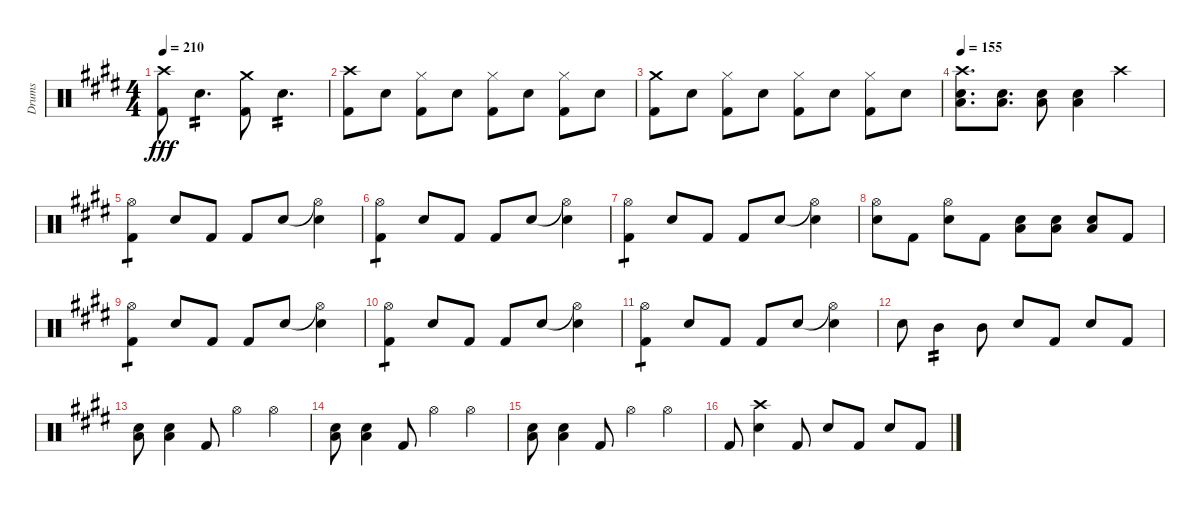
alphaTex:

\track ("Drums" "Drums") {instrument percussion}
\staff {score}
\articulation defaults
\ts (4 4)
\tempo 210
\clef neutral
\ks e
("Kick (hit) 2" "Crash high (hit)").8{dy fff} "Snare (hit) 2".4{d tp 2} ("Kick (hit) 2" "Crash medium (hit)").8 "Snare (hit) 2".4{d tp 2} |
("Crash high (hit)" "Kick (hit) 2").8 "Snare (hit) 2".8 ("Hi-Hat (closed)" "Kick (hit) 2").8 "Snare (hit) 2".8 ("Hi-Hat (closed)" "Kick (hit) 2").8 "Snare (hit) 2".8 ("Hi-Hat (closed)" "Kick (hit) 2").8 "Snare (hit) 2".8 |
("Crash medium (hit)" "Kick (hit) 2").8 "Snare (hit) 2".8 ("Hi-Hat (closed)" "Kick (hit) 2").8 "Snare (hit) 2".8 ("Hi-Hat (closed)" "Kick (hit) 2").8 "Snare (hit) 2".8 ("Hi-Hat (closed)" "Kick (hit) 2").8 "Snare (hit) 2".8 |
\tempo 155
("Crash high (hit)" "Snare (hit) 2" "Low Floor Tom (hit)").8{d} ("Snare (hit) 2" "Low Floor Tom (hit)").8{d} ("Snare (hit) 2" "Low Floor Tom (hit)").8 ("Snare (hit) 2" "Low Floor Tom (hit)").4 "Crash high (hit)".4 |
("Hi-Hat (open)" "Kick (hit) 2").4{tp 1} "Snare (hit) 2".8 "Kick (hit) 2".8 "Kick (hit) 2".8 "Snare (hit) 2".8 ("Hi-Hat (open)"{t} "Snare (hit) 2").4 |
("Hi-Hat (open)" "Kick (hit) 2").4{tp 1} "Snare (hit) 2".8 "Kick (hit) 2".8 "Kick (hit) 2".8 "Snare (hit) 2".8 ("Hi-Hat (open)"{t} "Snare (hit) 2").4 |
("Hi-Hat (open)" "Kick (hit) 2").4{tp 1} "Snare (hit) 2".8 "Kick (hit) 2".8 "Kick (hit) 2".8 "Snare (hit) 2".8 ("Hi-Hat (open)"{t} "Snare (hit) 2").4 |
("Hi-Hat (open)" "Snare (hit) 2").8 "Kick (hit) 2".8 ("Hi-Hat (open)" "Snare (hit) 2").8 "Kick (hit) 2".8 ("Snare (hit) 2" "Low Floor Tom (hit)").8 ("Snare (hit) 2" "Low Floor Tom (hit)").8 ("Snare (hit) 2" "Low Floor Tom (hit)").8 "Kick (hit) 2".8 |
("Hi-Hat (open)" "Kick (hit) 2").4{tp 1} "Snare (hit) 2".8 "Kick (hit) 2".8 "Kick (hit) 2".8 "Snare (hit) 2".8 ("Hi-Hat (open)"{t} "Snare (hit) 2").4 |
("Hi-Hat (open)" "Kick (hit) 2").4{tp 1} "Snare (hit) 2".8 "Kick (hit) 2".8 "Kick (hit) 2".8 "Snare (hit) 2".8 ("Hi-Hat (open)"{t} "Snare (hit) 2").4 |
("Hi-Hat (open)" "Kick (hit) 2").4{tp 1} "Snare (hit) 2".8 "Kick (hit) 2".8 "Kick (hit) 2".8 "Snare (hit) 2".8 ("Hi-Hat (open)"{t} "Snare (hit) 2").4 |
"Snare (hit) 2".8 "Mid Tom (hit)".4{tp 2} "Mid Tom (hit)".8 "Snare (hit) 2".8 "Kick (hit) 2".8 "Snare (hit) 2".8 "Kick (hit) 2".8 |
("Low Floor Tom (hit)" "Snare (hit) 2").8 ("Low Floor Tom (hit)" "Snare (hit) 2").4 "Kick (hit) 2".8 "Hi-Hat (open)".4 "Hi-Hat (open)".4 |
("Low Floor Tom (hit)" "Snare (hit) 2").8 ("Low Floor Tom (hit)" "Snare (hit) 2").4 "Kick (hit) 2".8 "Hi-Hat (open)".4 "Hi-Hat (open)".4 |
("Low Floor Tom (hit)" "Snare (hit) 2").8 ("Low Floor Tom (hit)" "Snare (hit) 2").4 "Kick (hit) 2".8 "Hi-Hat (open)".4 "Hi-Hat (open)".4 |
"Kick (hit) 2".8 ("Crash high (hit)" "Snare (hit) 2").4 "Kick (hit) 2".8 "Snare (hit) 2".8 "Kick (hit) 2".8 "Snare (hit) 2".8 "Kick (hit) 2".8
